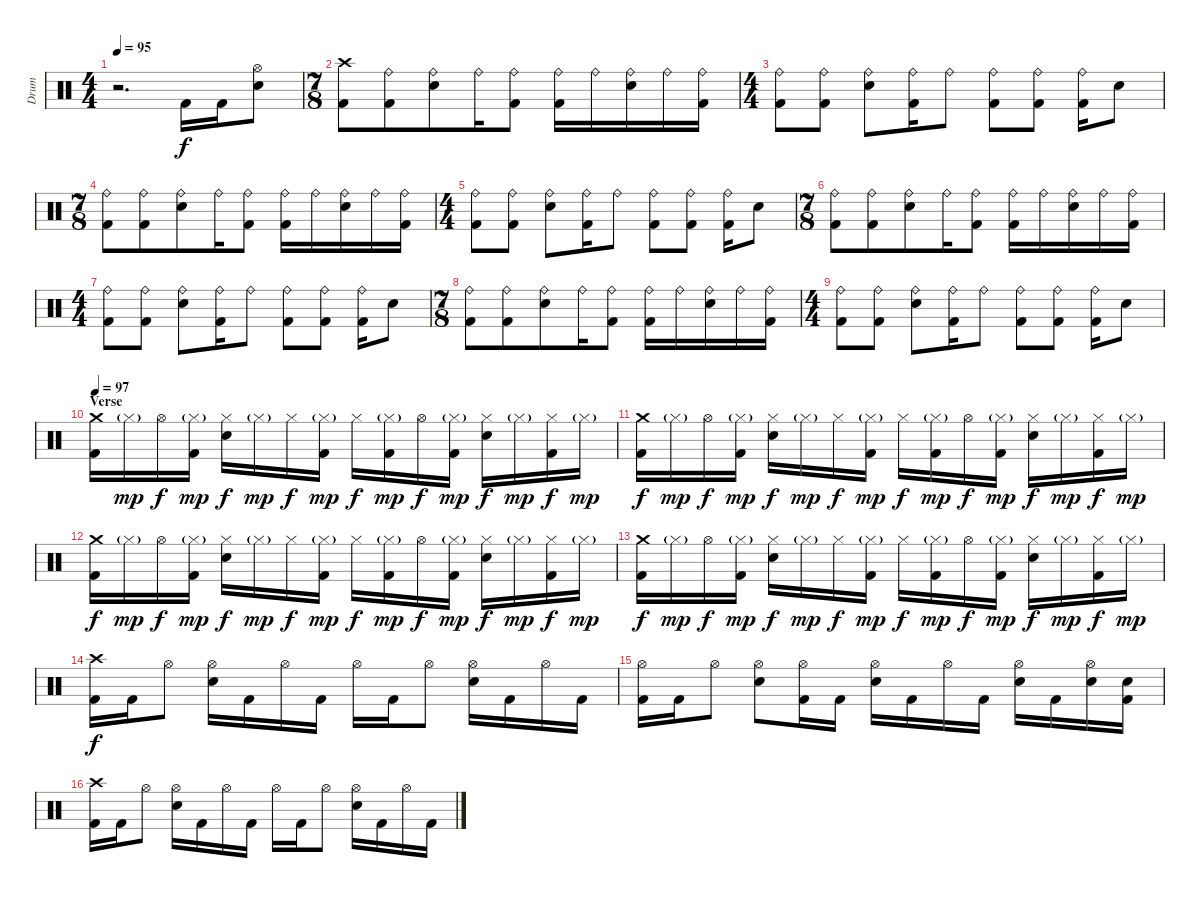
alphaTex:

\track ("Drum" "Drum") {instrument percussion}
\staff {score}
\articulation defaults
\ts (4 4)
\tempo 95
\clef neutral
\ks c
r.2{d dy f} "Kick (hit) 2".16 "Kick (hit) 2".16 ("Hi-Hat (open)" "Snare (hit) 2").8 |
\ts (7 8)
("Crash high (hit)" "Kick (hit) 2").8 ("Ride (bell)" "Kick (hit) 2").8 ("Ride (bell)" "Snare (hit) 2").8 "Ride (bell)".16 ("Ride (bell)" "Kick (hit) 2").8 ("Ride (bell)" "Kick (hit) 2").16 "Ride (bell)".16 ("Ride (bell)" "Snare (hit) 2").16 "Ride (bell)".16 ("Ride (bell)" "Kick (hit) 2").16 |
\ts (4 4)
("Ride (bell)" "Kick (hit) 2").8 ("Ride (bell)" "Kick (hit) 2").8 ("Ride (bell)" "Snare (hit) 2").8 ("Ride (bell)" "Kick (hit) 2").16 "Ride (bell)".8 ("Ride (bell)" "Kick (hit) 2").8 ("Ride (bell)" "Kick (hit) 2").8 ("Ride (bell)" "Kick (hit) 2").16 "Snare (hit) 2".8 |
\ts (7 8)
("Ride (bell)" "Kick (hit) 2").8 ("Ride (bell)" "Kick (hit) 2").8 ("Ride (bell)" "Snare (hit) 2").8 "Ride (bell)".16 ("Ride (bell)" "Kick (hit) 2").8 ("Ride (bell)" "Kick (hit) 2").16 "Ride (bell)".16 ("Ride (bell)" "Snare (hit) 2").16 "Ride (bell)".16 ("Ride (bell)" "Kick (hit) 2").16 |
\ts (4 4)
("Ride (bell)" "Kick (hit) 2").8 ("Ride (bell)" "Kick (hit) 2").8 ("Ride (bell)" "Snare (hit) 2").8 ("Ride (bell)" "Kick (hit) 2").16 "Ride (bell)".8 ("Ride (bell)" "Kick (hit) 2").8 ("Ride (bell)" "Kick (hit) 2").8 ("Ride (bell)" "Kick (hit) 2").16 "Snare (hit) 2".8 |
\ts (7 8)
("Ride (bell)" "Kick (hit) 2").8 ("Ride (bell)" "Kick (hit) 2").8 ("Ride (bell)" "Snare (hit) 2").8 "Ride (bell)".16 ("Ride (bell)" "Kick (hit) 2").8 ("Ride (bell)" "Kick (hit) 2").16 "Ride (bell)".16 ("Ride (bell)" "Snare (hit) 2").16 "Ride (bell)".16 ("Ride (bell)" "Kick (hit) 2").16 |
\ts (4 4)
("Ride (bell)" "Kick (hit) 2").8 ("Ride (bell)" "Kick (hit) 2").8 ("Ride (bell)" "Snare (hit) 2").8 ("Ride (bell)" "Kick (hit) 2").16 "Ride (bell)".8 ("Ride (bell)" "Kick (hit) 2").8 ("Ride (bell)" "Kick (hit) 2").8 ("Ride (bell)" "Kick (hit) 2").16 "Snare (hit) 2".8 |
\ts (7 8)
("Ride (bell)" "Kick (hit) 2").8 ("Ride (bell)" "Kick (hit) 2").8 ("Ride (bell)" "Snare (hit) 2").8 "Ride (bell)".16 ("Ride (bell)" "Kick (hit) 2").8 ("Ride (bell)" "Kick (hit) 2").16 "Ride (bell)".16 ("Ride (bell)" "Snare (hit) 2").16 "Ride (bell)".16 ("Ride (bell)" "Kick (hit) 2").16 |
\ts (4 4)
("Ride (bell)" "Kick (hit) 2").8 ("Ride (bell)" "Kick (hit) 2").8 ("Ride (bell)" "Snare (hit) 2").8 ("Ride (bell)" "Kick (hit) 2").16 "Ride (bell)".8 ("Ride (bell)" "Kick (hit) 2").8 ("Ride (bell)" "Kick (hit) 2").8 ("Ride (bell)" "Kick (hit) 2").16 "Snare (hit) 2".8 |
\section ("" "Verse")
\tempo 97
("Crash medium (hit)" "Kick (hit) 2").16 "Hi-Hat (closed)"{g}.16{dy mp} "Hi-Hat (open)".16{dy f} ("Hi-Hat (closed)"{g} "Kick (hit) 2").16{dy mp} ("Hi-Hat (closed)" "Snare (hit) 2").16{dy f} "Hi-Hat (closed)"{g}.16{dy mp} "Hi-Hat (closed)".16{dy f} ("Hi-Hat (closed)"{g} "Kick (hit) 2").16{dy mp} "Hi-Hat (closed)".16{dy f} ("Hi-Hat (closed)"{g} "Kick (hit) 2").16{dy mp} "Hi-Hat (open)".16{dy f} ("Hi-Hat (closed)"{g} "Kick (hit) 2").16{dy mp} ("Hi-Hat (closed)" "Snare (hit) 2").16{dy f} "Hi-Hat (closed)"{g}.16{dy mp} ("Hi-Hat (closed)" "Kick (hit) 2").16{dy f} "Hi-Hat (closed)"{g}.16{dy mp} |
("Crash medium (hit)" "Kick (hit) 2").16{dy f} "Hi-Hat (closed)"{g}.16{dy mp} "Hi-Hat (open)".16{dy f} ("Hi-Hat (closed)"{g} "Kick (hit) 2").16{dy mp} ("Hi-Hat (closed)" "Snare (hit) 2").16{dy f} "Hi-Hat (closed)"{g}.16{dy mp} "Hi-Hat (closed)".16{dy f} ("Hi-Hat (closed)"{g} "Kick (hit) 2").16{dy mp} "Hi-Hat (closed)".16{dy f} ("Hi-Hat (closed)"{g} "Kick (hit) 2").16{dy mp} "Hi-Hat (open)".16{dy f} ("Hi-Hat (closed)"{g} "Kick (hit) 2").16{dy mp} ("Hi-Hat (closed)" "Snare (hit) 2").16{dy f} "Hi-Hat (closed)"{g}.16{dy mp} ("Hi-Hat (closed)" "Kick (hit) 2").16{dy f} "Hi-Hat (closed)"{g}.16{dy mp} |
("Crash medium (hit)" "Kick (hit) 2").16{dy f} "Hi-Hat (closed)"{g}.16{dy mp} "Hi-Hat (open)".16{dy f} ("Hi-Hat (closed)"{g} "Kick (hit) 2").16{dy mp} ("Hi-Hat (closed)" "Snare (hit) 2").16{dy f} "Hi-Hat (closed)"{g}.16{dy mp} "Hi-Hat (closed)".16{dy f} ("Hi-Hat (closed)"{g} "Kick (hit) 2").16{dy mp} "Hi-Hat (closed)".16{dy f} ("Hi-Hat (closed)"{g} "Kick (hit) 2").16{dy mp} "Hi-Hat (open)".16{dy f} ("Hi-Hat (closed)"{g} "Kick (hit) 2").16{dy mp} ("Hi-Hat (closed)" "Snare (hit) 2").16{dy f} "Hi-Hat (closed)"{g}.16{dy mp} ("Hi-Hat (closed)" "Kick (hit) 2").16{dy f} "Hi-Hat (closed)"{g}.16{dy mp} |
("Crash medium (hit)" "Kick (hit) 2").16{dy f} "Hi-Hat (closed)"{g}.16{dy mp} "Hi-Hat (open)".16{dy f} ("Hi-Hat (closed)"{g} "Kick (hit) 2").16{dy mp} ("Hi-Hat (closed)" "Snare (hit) 2").16{dy f} "Hi-Hat (closed)"{g}.16{dy mp} "Hi-Hat (closed)".16{dy f} ("Hi-Hat (closed)"{g} "Kick (hit) 2").16{dy mp} "Hi-Hat (closed)".16{dy f} ("Hi-Hat (closed)"{g} "Kick (hit) 2").16{dy mp} "Hi-Hat (open)".16{dy f} ("Hi-Hat (closed)"{g} "Kick (hit) 2").16{dy mp} ("Hi-Hat (closed)" "Snare (hit) 2").16{dy f} "Hi-Hat (closed)"{g}.16{dy mp} ("Hi-Hat (closed)" "Kick (hit) 2").16{dy f} "Hi-Hat (closed)"{g}.16{dy mp} |
("Crash high (hit)" "Kick (hit) 2").16{dy f} "Kick (hit) 2".16 "Hi-Hat (open)".8 ("Hi-Hat (open)" "Snare (hit) 2").16 "Kick (hit) 2".16 "Hi-Hat (open)".16 "Kick (hit) 2".16 "Hi-Hat (open)".16 "Kick (hit) 2".16 "Hi-Hat (open)".8 ("Hi-Hat (open)" "Snare (hit) 2").16 "Kick (hit) 2".16 "Hi-Hat (open)".16 "Kick (hit) 2".16 |
("Hi-Hat (open)" "Kick (hit) 2").16 "Kick (hit) 2".16 "Hi-Hat (open)".8 ("Hi-Hat (open)" "Snare (hit) 2").8 ("Hi-Hat (open)" "Kick (hit) 2").16 "Kick (hit) 2".16 ("Hi-Hat (open)" "Snare (hit) 2").16 "Kick (hit) 2".16 "Hi-Hat (open)".16 "Kick (hit) 2".16 ("Hi-Hat (open)" "Snare (hit) 2").16 "Kick (hit) 2".16 ("Hi-Hat (open)" "Snare (hit) 2").16 ("Snare (hit) 2" "Kick (hit) 2").16 |
("Crash high (hit)" "Kick (hit) 2").16 "Kick (hit) 2".16 "Hi-Hat (open)".8 ("Hi-Hat (open)" "Snare (hit) 2").16 "Kick (hit) 2".16 "Hi-Hat (open)".16 "Kick (hit) 2".16 "Hi-Hat (open)".16 "Kick (hit) 2".16 "Hi-Hat (open)".8 ("Hi-Hat (open)" "Snare (hit) 2").16 "Kick (hit) 2".16 "Hi-Hat (open)".16 "Kick (hit) 2".16
